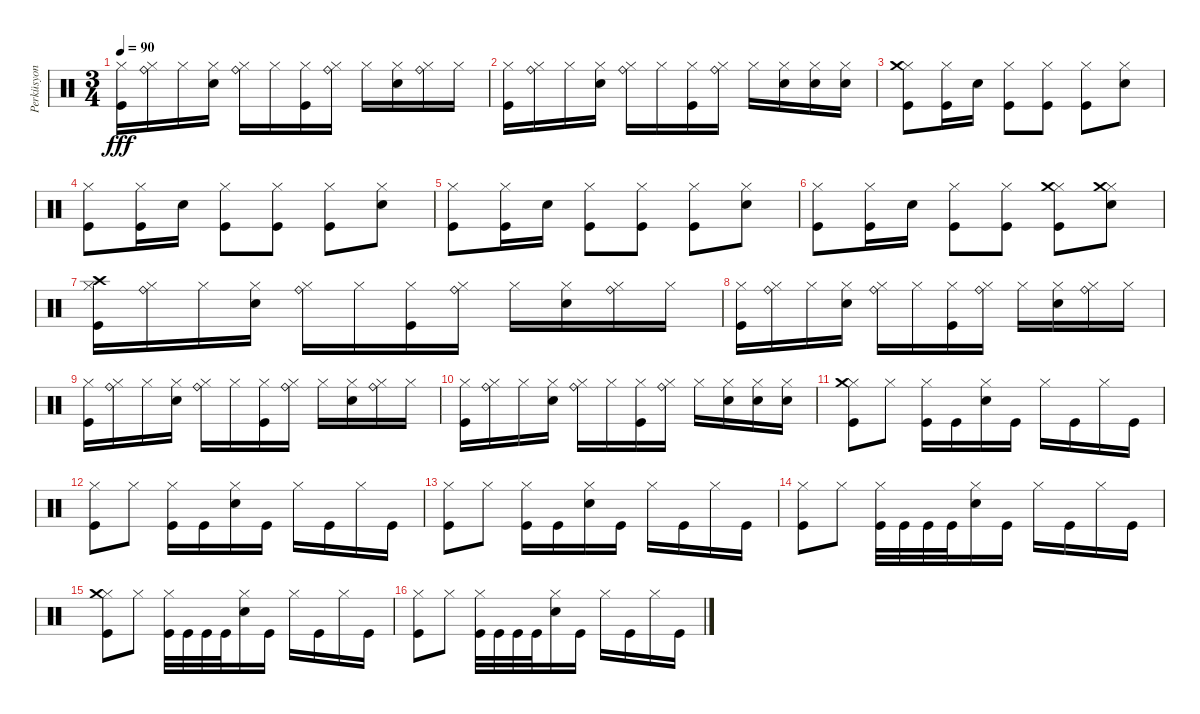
\track ("Perküsyon" "Perküsyon") {instrument percussion}
\staff {score}
\articulation defaults
\ts (3 4)
\tempo 90
\clef neutral
\ks c
("Kick (hit)" "Hi-Hat (closed)").16{dy fff} ("Ride (bell)" "Hi-Hat (closed)").16 "Hi-Hat (closed)".16 ("Electric Snare (hit)" "Hi-Hat (closed)").16 ("Ride (bell)" "Hi-Hat (closed)").16 "Hi-Hat (closed)".16 ("Kick (hit)" "Hi-Hat (closed)").16 ("Ride (bell)" "Hi-Hat (closed)").16 "Hi-Hat (closed)".16 ("Electric Snare (hit)" "Hi-Hat (closed)").16 ("Ride (bell)" "Hi-Hat (closed)").16 "Hi-Hat (closed)".16 |
("Kick (hit)" "Hi-Hat (closed)").16 ("Ride (bell)" "Hi-Hat (closed)").16 "Hi-Hat (closed)".16 ("Electric Snare (hit)" "Hi-Hat (closed)").16 ("Ride (bell)" "Hi-Hat (closed)").16 "Hi-Hat (closed)".16 ("Kick (hit)" "Hi-Hat (closed)").16 ("Ride (bell)" "Hi-Hat (closed)").16 "Hi-Hat (closed)".16 ("Electric Snare (hit)" "Hi-Hat (closed)").16 ("Electric Snare (hit)" "Hi-Hat (closed)").16 ("Electric Snare (hit)" "Hi-Hat (closed)").16 |
("Kick (hit)" "Hi-Hat (closed)" "Crash medium (hit)").8 ("Kick (hit)" "Hi-Hat (closed)").16 "Electric Snare (hit)".16 ("Kick (hit)" "Hi-Hat (closed)").8 ("Kick (hit)" "Hi-Hat (closed)").8 ("Kick (hit)" "Hi-Hat (closed)").8 ("Electric Snare (hit)" "Hi-Hat (closed)").8 |
("Kick (hit)" "Hi-Hat (closed)").8 ("Kick (hit)" "Hi-Hat (closed)").16 "Electric Snare (hit)".16 ("Kick (hit)" "Hi-Hat (closed)").8 ("Kick (hit)" "Hi-Hat (closed)").8 ("Kick (hit)" "Hi-Hat (closed)").8 ("Electric Snare (hit)" "Hi-Hat (closed)").8 |
("Kick (hit)" "Hi-Hat (closed)").8 ("Kick (hit)" "Hi-Hat (closed)").16 "Electric Snare (hit)".16 ("Kick (hit)" "Hi-Hat (closed)").8 ("Kick (hit)" "Hi-Hat (closed)").8 ("Kick (hit)" "Hi-Hat (closed)").8 ("Electric Snare (hit)" "Hi-Hat (closed)").8 |
("Kick (hit)" "Hi-Hat (closed)").8 ("Kick (hit)" "Hi-Hat (closed)").16 "Electric Snare (hit)".16 ("Kick (hit)" "Hi-Hat (closed)").8 ("Kick (hit)" "Hi-Hat (closed)").8 ("Kick (hit)" "Hi-Hat (closed)" "Crash medium (hit)").8 ("Electric Snare (hit)" "Hi-Hat (closed)" "Crash medium (hit)").8 |
("Kick (hit)" "Hi-Hat (closed)" "Crash high (hit)").16 ("Ride (bell)" "Hi-Hat (closed)").16 "Hi-Hat (closed)".16 ("Electric Snare (hit)" "Hi-Hat (closed)").16 ("Ride (bell)" "Hi-Hat (closed)").16 "Hi-Hat (closed)".16 ("Kick (hit)" "Hi-Hat (closed)").16 ("Ride (bell)" "Hi-Hat (closed)").16 "Hi-Hat (closed)".16 ("Electric Snare (hit)" "Hi-Hat (closed)").16 ("Ride (bell)" "Hi-Hat (closed)").16 "Hi-Hat (closed)".16 |
("Kick (hit)" "Hi-Hat (closed)").16 ("Ride (bell)" "Hi-Hat (closed)").16 "Hi-Hat (closed)".16 ("Electric Snare (hit)" "Hi-Hat (closed)").16 ("Ride (bell)" "Hi-Hat (closed)").16 "Hi-Hat (closed)".16 ("Kick (hit)" "Hi-Hat (closed)").16 ("Ride (bell)" "Hi-Hat (closed)").16 "Hi-Hat (closed)".16 ("Electric Snare (hit)" "Hi-Hat (closed)").16 ("Ride (bell)" "Hi-Hat (closed)").16 "Hi-Hat (closed)".16 |
("Kick (hit)" "Hi-Hat (closed)").16 ("Ride (bell)" "Hi-Hat (closed)").16 "Hi-Hat (closed)".16 ("Electric Snare (hit)" "Hi-Hat (closed)").16 ("Ride (bell)" "Hi-Hat (closed)").16 "Hi-Hat (closed)".16 ("Kick (hit)" "Hi-Hat (closed)").16 ("Ride (bell)" "Hi-Hat (closed)").16 "Hi-Hat (closed)".16 ("Electric Snare (hit)" "Hi-Hat (closed)").16 ("Ride (bell)" "Hi-Hat (closed)").16 "Hi-Hat (closed)".16 |
("Kick (hit)" "Hi-Hat (closed)").16 ("Ride (bell)" "Hi-Hat (closed)").16 "Hi-Hat (closed)".16 ("Electric Snare (hit)" "Hi-Hat (closed)").16 ("Ride (bell)" "Hi-Hat (closed)").16 "Hi-Hat (closed)".16 ("Kick (hit)" "Hi-Hat (closed)").16 ("Ride (bell)" "Hi-Hat (closed)").16 "Hi-Hat (closed)".16 ("Electric Snare (hit)" "Hi-Hat (closed)").16 ("Electric Snare (hit)" "Hi-Hat (closed)").16 ("Electric Snare (hit)" "Hi-Hat (closed)").16 |
("Kick (hit)" "Hi-Hat (closed)" "Crash medium (hit)").8 "Hi-Hat (closed)".8 ("Kick (hit)" "Hi-Hat (closed)").16 "Kick (hit)".16 ("Electric Snare (hit)" "Hi-Hat (closed)").16 "Kick (hit)".16 "Hi-Hat (closed)".16 "Kick (hit)".16 "Hi-Hat (closed)".16 "Kick (hit)".16 |
("Kick (hit)" "Hi-Hat (closed)").8 "Hi-Hat (closed)".8 ("Kick (hit)" "Hi-Hat (closed)").16 "Kick (hit)".16 ("Electric Snare (hit)" "Hi-Hat (closed)").16 "Kick (hit)".16 "Hi-Hat (closed)".16 "Kick (hit)".16 "Hi-Hat (closed)".16 "Kick (hit)".16 |
("Kick (hit)" "Hi-Hat (closed)").8 "Hi-Hat (closed)".8 ("Kick (hit)" "Hi-Hat (closed)").16 "Kick (hit)".16 ("Electric Snare (hit)" "Hi-Hat (closed)").16 "Kick (hit)".16 "Hi-Hat (closed)".16 "Kick (hit)".16 "Hi-Hat (closed)".16 "Kick (hit)".16 |
("Kick (hit)" "Hi-Hat (closed)").8 "Hi-Hat (closed)".8 ("Kick (hit)" "Hi-Hat (closed)").32 "Kick (hit)".32 "Kick (hit)".32 "Kick (hit)".32 ("Electric Snare (hit)" "Hi-Hat (closed)").16 "Kick (hit)".16 "Hi-Hat (closed)".16 "Kick (hit)".16 "Hi-Hat (closed)".16 "Kick (hit)".16 |
("Kick (hit)" "Hi-Hat (closed)" "Crash medium (hit)").8 "Hi-Hat (closed)".8 ("Kick (hit)" "Hi-Hat (closed)").32 "Kick (hit)".32 "Kick (hit)".32 "Kick (hit)".32 ("Electric Snare (hit)" "Hi-Hat (closed)").16 "Kick (hit)".16 "Hi-Hat (closed)".16 "Kick (hit)".16 "Hi-Hat (closed)".16 "Kick (hit)".16 |
("Kick (hit)" "Hi-Hat (closed)").8 "Hi-Hat (closed)".8 ("Kick (hit)" "Hi-Hat (closed)").32 "Kick (hit)".32 "Kick (hit)".32 "Kick (hit)".32 ("Electric Snare (hit)" "Hi-Hat (closed)").16 "Kick (hit)".16 "Hi-Hat (closed)".16 "Kick (hit)".16 "Hi-Hat (closed)".16 "Kick (hit)".16
